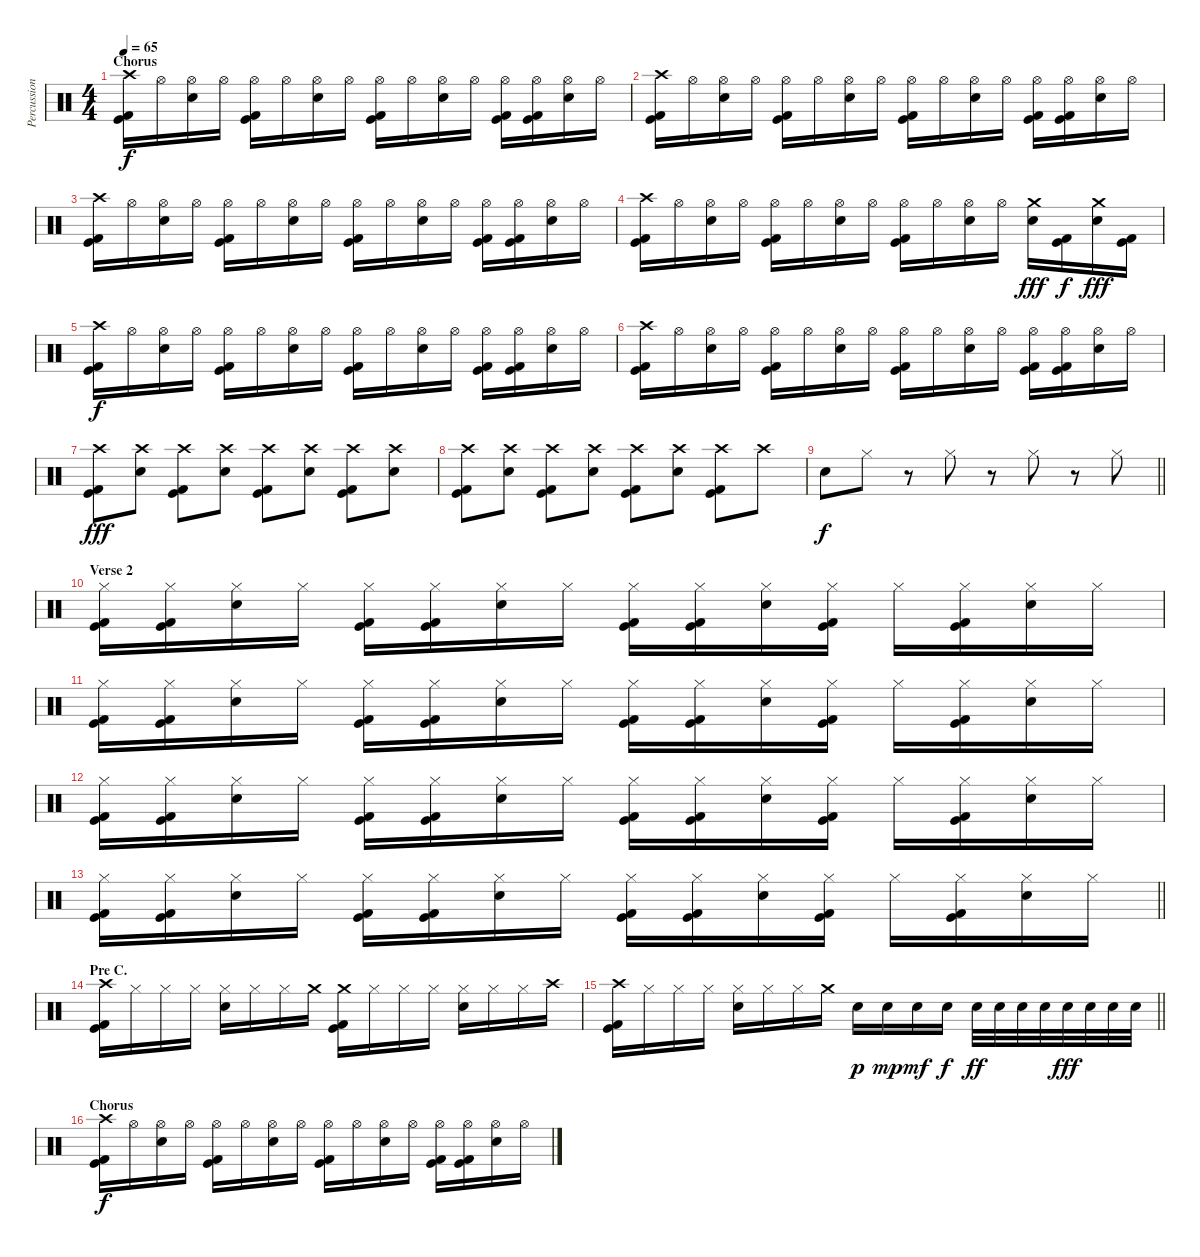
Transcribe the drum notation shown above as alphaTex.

\track ("Percussioni" "Percussion") {instrument percussion}
\staff {score}
\articulation defaults
\ts (4 4)
\section ("" "Chorus")
\tempo 65
\clef neutral
\ks c
("Crash high (hit)" "Kick (hit) 2" "Kick (hit)").16{dy f} "Hi-Hat (open)".16 ("Hi-Hat (open)" "Snare (hit) 2").16 "Hi-Hat (open)".16 ("Hi-Hat (open)" "Kick (hit) 2" "Kick (hit)").16 "Hi-Hat (open)".16 ("Hi-Hat (open)" "Snare (hit) 2").16 "Hi-Hat (open)".16 ("Hi-Hat (open)" "Kick (hit) 2" "Kick (hit)").16 "Hi-Hat (open)".16 ("Hi-Hat (open)" "Snare (hit) 2").16 "Hi-Hat (open)".16 ("Hi-Hat (open)" "Kick (hit) 2" "Kick (hit)").16 ("Hi-Hat (open)" "Kick (hit) 2" "Kick (hit)").16 ("Hi-Hat (open)" "Snare (hit) 2").16 "Hi-Hat (open)".16 |
("Crash high (hit)" "Kick (hit) 2" "Kick (hit)").16 "Hi-Hat (open)".16 ("Hi-Hat (open)" "Snare (hit) 2").16 "Hi-Hat (open)".16 ("Hi-Hat (open)" "Kick (hit) 2" "Kick (hit)").16 "Hi-Hat (open)".16 ("Hi-Hat (open)" "Snare (hit) 2").16 "Hi-Hat (open)".16 ("Hi-Hat (open)" "Kick (hit) 2" "Kick (hit)").16 "Hi-Hat (open)".16 ("Hi-Hat (open)" "Snare (hit) 2").16 "Hi-Hat (open)".16 ("Hi-Hat (open)" "Kick (hit) 2" "Kick (hit)").16 ("Hi-Hat (open)" "Kick (hit) 2" "Kick (hit)").16 ("Hi-Hat (open)" "Snare (hit) 2").16 "Hi-Hat (open)".16 |
("Crash high (hit)" "Kick (hit) 2" "Kick (hit)").16 "Hi-Hat (open)".16 ("Hi-Hat (open)" "Snare (hit) 2").16 "Hi-Hat (open)".16 ("Hi-Hat (open)" "Kick (hit) 2" "Kick (hit)").16 "Hi-Hat (open)".16 ("Hi-Hat (open)" "Snare (hit) 2").16 "Hi-Hat (open)".16 ("Hi-Hat (open)" "Kick (hit) 2" "Kick (hit)").16 "Hi-Hat (open)".16 ("Hi-Hat (open)" "Snare (hit) 2").16 "Hi-Hat (open)".16 ("Hi-Hat (open)" "Kick (hit) 2" "Kick (hit)").16 ("Hi-Hat (open)" "Kick (hit) 2" "Kick (hit)").16 ("Hi-Hat (open)" "Snare (hit) 2").16 "Hi-Hat (open)".16 |
("Crash high (hit)" "Kick (hit) 2" "Kick (hit)").16 "Hi-Hat (open)".16 ("Hi-Hat (open)" "Snare (hit) 2").16 "Hi-Hat (open)".16 ("Hi-Hat (open)" "Kick (hit) 2" "Kick (hit)").16 "Hi-Hat (open)".16 ("Hi-Hat (open)" "Snare (hit) 2").16 "Hi-Hat (open)".16 ("Hi-Hat (open)" "Kick (hit) 2" "Kick (hit)").16 "Hi-Hat (open)".16 ("Hi-Hat (open)" "Snare (hit) 2").16 "Hi-Hat (open)".16 ("Crash medium (hit)" "Snare (hit) 2").16{dy fff} ("Kick (hit) 2" "Kick (hit)").16{dy f} ("Crash medium (hit)" "Snare (hit) 2").16{dy fff} ("Kick (hit) 2" "Kick (hit)").16 |
("Crash high (hit)" "Kick (hit) 2" "Kick (hit)").16{dy f} "Hi-Hat (open)".16 ("Hi-Hat (open)" "Snare (hit) 2").16 "Hi-Hat (open)".16 ("Hi-Hat (open)" "Kick (hit) 2" "Kick (hit)").16 "Hi-Hat (open)".16 ("Hi-Hat (open)" "Snare (hit) 2").16 "Hi-Hat (open)".16 ("Hi-Hat (open)" "Kick (hit) 2" "Kick (hit)").16 "Hi-Hat (open)".16 ("Hi-Hat (open)" "Snare (hit) 2").16 "Hi-Hat (open)".16 ("Hi-Hat (open)" "Kick (hit) 2" "Kick (hit)").16 ("Hi-Hat (open)" "Kick (hit) 2" "Kick (hit)").16 ("Hi-Hat (open)" "Snare (hit) 2").16 "Hi-Hat (open)".16 |
("Crash high (hit)" "Kick (hit) 2" "Kick (hit)").16 "Hi-Hat (open)".16 ("Hi-Hat (open)" "Snare (hit) 2").16 "Hi-Hat (open)".16 ("Hi-Hat (open)" "Kick (hit) 2" "Kick (hit)").16 "Hi-Hat (open)".16 ("Hi-Hat (open)" "Snare (hit) 2").16 "Hi-Hat (open)".16 ("Hi-Hat (open)" "Kick (hit) 2" "Kick (hit)").16 "Hi-Hat (open)".16 ("Hi-Hat (open)" "Snare (hit) 2").16 "Hi-Hat (open)".16 ("Hi-Hat (open)" "Kick (hit) 2" "Kick (hit)").16 ("Hi-Hat (open)" "Kick (hit) 2" "Kick (hit)").16 ("Hi-Hat (open)" "Snare (hit) 2").16 "Hi-Hat (open)".16 |
("Crash high (hit)" "Kick (hit) 2" "Kick (hit)").8{dy fff} ("Crash high (hit)" "Snare (hit) 2").8 ("Crash high (hit)" "Kick (hit) 2" "Kick (hit)").8 ("Crash high (hit)" "Snare (hit) 2").8 ("Crash high (hit)" "Kick (hit) 2" "Kick (hit)").8 ("Crash high (hit)" "Snare (hit) 2").8 ("Crash high (hit)" "Kick (hit) 2" "Kick (hit)").8 ("Crash high (hit)" "Snare (hit) 2").8 |
("Crash high (hit)" "Kick (hit) 2" "Kick (hit)").8 ("Crash high (hit)" "Snare (hit) 2").8 ("Crash high (hit)" "Kick (hit) 2" "Kick (hit)").8 ("Crash high (hit)" "Snare (hit) 2").8 ("Crash high (hit)" "Kick (hit) 2" "Kick (hit)").8 ("Crash high (hit)" "Snare (hit) 2").8 ("Crash high (hit)" "Kick (hit) 2" "Kick (hit)").8 "Crash high (hit)".8 |
\barLineRight lightlight "Snare (hit) 2".8{dy f} "Hi-Hat (closed)".8
r.8 "Hi-Hat (closed)".8 r.8 "Hi-Hat (closed)".8 r.8 "Hi-Hat (closed)".8 |
\section ("" "Verse 2")
("Hi-Hat (closed)" "Kick (hit) 2" "Kick (hit)").16 ("Hi-Hat (closed)" "Kick (hit) 2" "Kick (hit)").16 ("Hi-Hat (closed)" "Snare (hit) 2").16 "Hi-Hat (closed)".16 ("Hi-Hat (closed)" "Kick (hit) 2" "Kick (hit)").16 ("Hi-Hat (closed)" "Kick (hit) 2" "Kick (hit)").16 ("Hi-Hat (closed)" "Snare (hit) 2").16 "Hi-Hat (closed)".16 ("Hi-Hat (closed)" "Kick (hit) 2" "Kick (hit)").16 ("Hi-Hat (closed)" "Kick (hit) 2" "Kick (hit)").16 ("Hi-Hat (closed)" "Snare (hit) 2").16 ("Hi-Hat (closed)" "Kick (hit) 2" "Kick (hit)").16 "Hi-Hat (closed)".16 ("Hi-Hat (closed)" "Kick (hit) 2" "Kick (hit)").16 ("Hi-Hat (closed)" "Snare (hit) 2").16 "Hi-Hat (closed)".16 |
("Hi-Hat (closed)" "Kick (hit) 2" "Kick (hit)").16 ("Hi-Hat (closed)" "Kick (hit) 2" "Kick (hit)").16 ("Hi-Hat (closed)" "Snare (hit) 2").16 "Hi-Hat (closed)".16 ("Hi-Hat (closed)" "Kick (hit) 2" "Kick (hit)").16 ("Hi-Hat (closed)" "Kick (hit) 2" "Kick (hit)").16 ("Hi-Hat (closed)" "Snare (hit) 2").16 "Hi-Hat (closed)".16 ("Hi-Hat (closed)" "Kick (hit) 2" "Kick (hit)").16 ("Hi-Hat (closed)" "Kick (hit) 2" "Kick (hit)").16 ("Hi-Hat (closed)" "Snare (hit) 2").16 ("Hi-Hat (closed)" "Kick (hit) 2" "Kick (hit)").16 "Hi-Hat (closed)".16 ("Hi-Hat (closed)" "Kick (hit) 2" "Kick (hit)").16 ("Hi-Hat (closed)" "Snare (hit) 2").16 "Hi-Hat (closed)".16 |
("Hi-Hat (closed)" "Kick (hit) 2" "Kick (hit)").16 ("Hi-Hat (closed)" "Kick (hit) 2" "Kick (hit)").16 ("Hi-Hat (closed)" "Snare (hit) 2").16 "Hi-Hat (closed)".16 ("Hi-Hat (closed)" "Kick (hit) 2" "Kick (hit)").16 ("Hi-Hat (closed)" "Kick (hit) 2" "Kick (hit)").16 ("Hi-Hat (closed)" "Snare (hit) 2").16 "Hi-Hat (closed)".16 ("Hi-Hat (closed)" "Kick (hit) 2" "Kick (hit)").16 ("Hi-Hat (closed)" "Kick (hit) 2" "Kick (hit)").16 ("Hi-Hat (closed)" "Snare (hit) 2").16 ("Hi-Hat (closed)" "Kick (hit) 2" "Kick (hit)").16 "Hi-Hat (closed)".16 ("Hi-Hat (closed)" "Kick (hit) 2" "Kick (hit)").16 ("Hi-Hat (closed)" "Snare (hit) 2").16 "Hi-Hat (closed)".16 |
\barLineRight lightlight
("Hi-Hat (closed)" "Kick (hit) 2" "Kick (hit)").16 ("Hi-Hat (closed)" "Kick (hit) 2" "Kick (hit)").16 ("Hi-Hat (closed)" "Snare (hit) 2").16 "Hi-Hat (closed)".16 ("Hi-Hat (closed)" "Kick (hit) 2" "Kick (hit)").16 ("Hi-Hat (closed)" "Kick (hit) 2" "Kick (hit)").16 ("Hi-Hat (closed)" "Snare (hit) 2").16 "Hi-Hat (closed)".16 ("Hi-Hat (closed)" "Kick (hit) 2" "Kick (hit)").16 ("Hi-Hat (closed)" "Kick (hit) 2" "Kick (hit)").16 ("Hi-Hat (closed)" "Snare (hit) 2").16 ("Hi-Hat (closed)" "Kick (hit) 2" "Kick (hit)").16 "Hi-Hat (closed)".16 ("Hi-Hat (closed)" "Kick (hit) 2" "Kick (hit)").16 ("Hi-Hat (closed)" "Snare (hit) 2").16 "Hi-Hat (closed)".16 |
\section ("" "Pre C.")
("Crash high (hit)" "Kick (hit) 2" "Kick (hit)").16 "Hi-Hat (closed)".16 "Hi-Hat (closed)".16 "Hi-Hat (closed)".16 ("Hi-Hat (closed)" "Snare (hit) 2").16 "Hi-Hat (closed)".16 "Hi-Hat (closed)".16 "Crash medium (hit)".16 ("Crash medium (hit)" "Kick (hit) 2" "Kick (hit)").16 "Hi-Hat (closed)".16 "Hi-Hat (closed)".16 "Hi-Hat (closed)".16 ("Hi-Hat (closed)" "Snare (hit) 2").16 "Hi-Hat (closed)".16 "Hi-Hat (closed)".16 "Crash high (hit)".16 |
\barLineRight lightlight
("Crash high (hit)" "Kick (hit) 2" "Kick (hit)").16 "Hi-Hat (closed)".16 "Hi-Hat (closed)".16 "Hi-Hat (closed)".16 ("Hi-Hat (closed)" "Snare (hit) 2").16 "Hi-Hat (closed)".16 "Hi-Hat (closed)".16 "Crash medium (hit)".16 "Snare (hit) 2".16{dy p} "Snare (hit) 2".16{dy mp} "Snare (hit) 2".16{dy mf} "Snare (hit) 2".16{dy f} "Snare (hit) 2".32{dy ff} "Snare (hit) 2".32 "Snare (hit) 2".32 "Snare (hit) 2".32 "Snare (hit) 2".32{dy fff} "Snare (hit) 2".32 "Snare (hit) 2".32 "Snare (hit) 2".32 |
\section ("" "Chorus")
("Crash high (hit)" "Kick (hit) 2" "Kick (hit)").16{dy f} "Hi-Hat (open)".16 ("Hi-Hat (open)" "Snare (hit) 2").16 "Hi-Hat (open)".16 ("Hi-Hat (open)" "Kick (hit) 2" "Kick (hit)").16 "Hi-Hat (open)".16 ("Hi-Hat (open)" "Snare (hit) 2").16 "Hi-Hat (open)".16 ("Hi-Hat (open)" "Kick (hit) 2" "Kick (hit)").16 "Hi-Hat (open)".16 ("Hi-Hat (open)" "Snare (hit) 2").16 "Hi-Hat (open)".16 ("Hi-Hat (open)" "Kick (hit) 2" "Kick (hit)").16 ("Hi-Hat (open)" "Kick (hit) 2" "Kick (hit)").16 ("Hi-Hat (open)" "Snare (hit) 2").16 "Hi-Hat (open)".16
